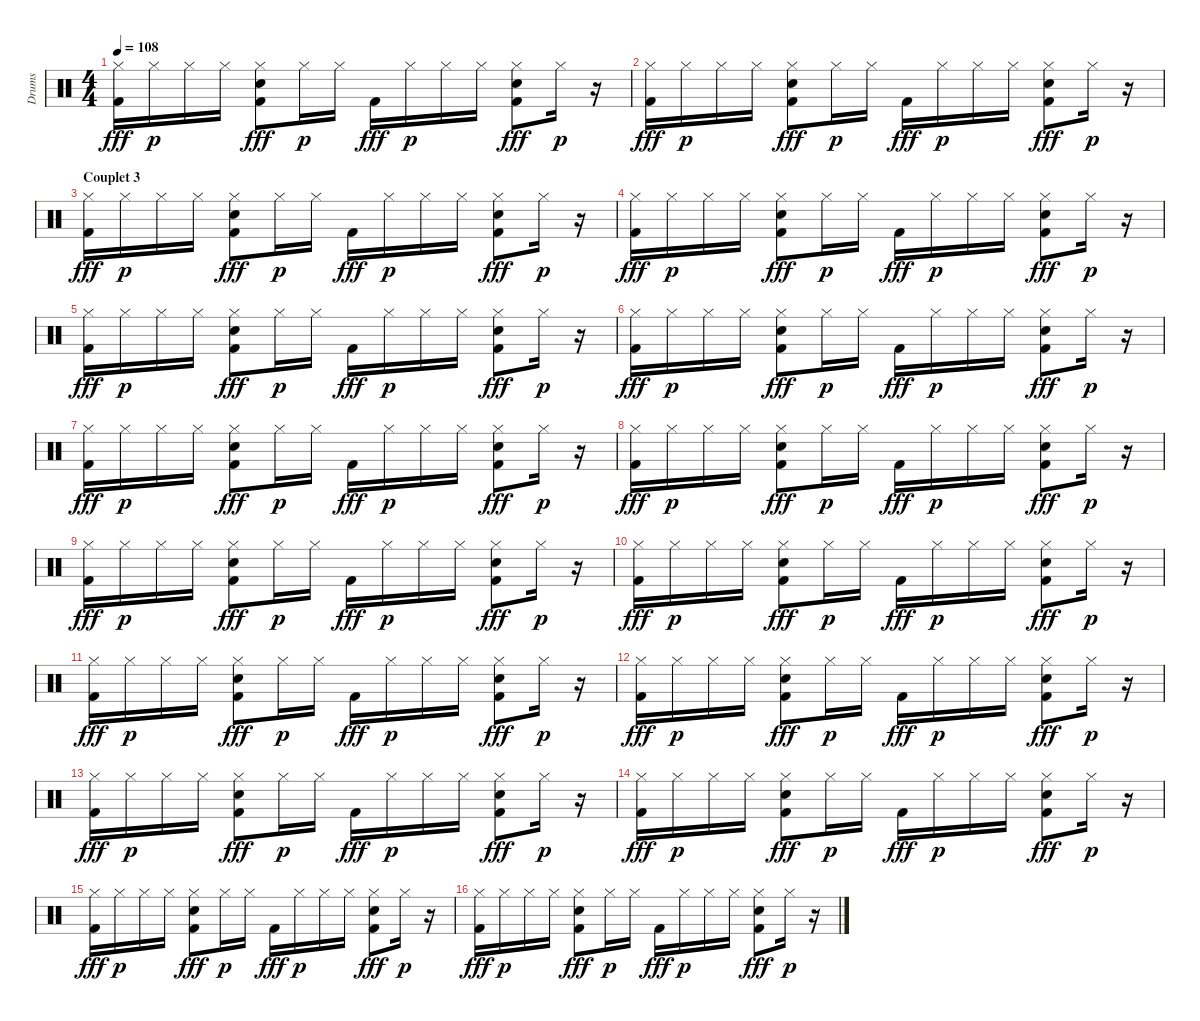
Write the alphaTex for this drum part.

\track ("Drums" "Drums") {instrument percussion}
\staff {score}
\articulation defaults
\ts (4 4)
\tempo 108
\clef neutral
\ks c
("Hi-Hat (closed)" "Kick (hit) 2").16{dy fff} "Hi-Hat (closed)".16{dy p} "Hi-Hat (closed)".16 "Hi-Hat (closed)".16 ("Hi-Hat (closed)" "Hand Clap (hit)" "Kick (hit) 2").8{dy fff} "Hi-Hat (closed)".16{dy p} "Hi-Hat (closed)".16 "Kick (hit) 2".16{dy fff} "Hi-Hat (closed)".16{dy p} "Hi-Hat (closed)".16 "Hi-Hat (closed)".16 ("Hi-Hat (closed)" "Hand Clap (hit)" "Kick (hit) 2").8{dy fff} "Hi-Hat (closed)".16{dy p} r.16 |
("Hi-Hat (closed)" "Kick (hit) 2").16{dy fff} "Hi-Hat (closed)".16{dy p} "Hi-Hat (closed)".16 "Hi-Hat (closed)".16 ("Hi-Hat (closed)" "Hand Clap (hit)" "Kick (hit) 2").8{dy fff} "Hi-Hat (closed)".16{dy p} "Hi-Hat (closed)".16 "Kick (hit) 2".16{dy fff} "Hi-Hat (closed)".16{dy p} "Hi-Hat (closed)".16 "Hi-Hat (closed)".16 ("Hi-Hat (closed)" "Hand Clap (hit)" "Kick (hit) 2").8{dy fff} "Hi-Hat (closed)".16{dy p} r.16 |
\section ("" "Couplet 3")
("Hi-Hat (closed)" "Kick (hit) 2").16{dy fff} "Hi-Hat (closed)".16{dy p} "Hi-Hat (closed)".16 "Hi-Hat (closed)".16 ("Hi-Hat (closed)" "Hand Clap (hit)" "Kick (hit) 2").8{dy fff} "Hi-Hat (closed)".16{dy p} "Hi-Hat (closed)".16 "Kick (hit) 2".16{dy fff} "Hi-Hat (closed)".16{dy p} "Hi-Hat (closed)".16 "Hi-Hat (closed)".16 ("Hi-Hat (closed)" "Hand Clap (hit)" "Kick (hit) 2").8{dy fff} "Hi-Hat (closed)".16{dy p} r.16 |
("Hi-Hat (closed)" "Kick (hit) 2").16{dy fff} "Hi-Hat (closed)".16{dy p} "Hi-Hat (closed)".16 "Hi-Hat (closed)".16 ("Hi-Hat (closed)" "Hand Clap (hit)" "Kick (hit) 2").8{dy fff} "Hi-Hat (closed)".16{dy p} "Hi-Hat (closed)".16 "Kick (hit) 2".16{dy fff} "Hi-Hat (closed)".16{dy p} "Hi-Hat (closed)".16 "Hi-Hat (closed)".16 ("Hi-Hat (closed)" "Hand Clap (hit)" "Kick (hit) 2").8{dy fff} "Hi-Hat (closed)".16{dy p} r.16 |
("Hi-Hat (closed)" "Kick (hit) 2").16{dy fff} "Hi-Hat (closed)".16{dy p} "Hi-Hat (closed)".16 "Hi-Hat (closed)".16 ("Hi-Hat (closed)" "Hand Clap (hit)" "Kick (hit) 2").8{dy fff} "Hi-Hat (closed)".16{dy p} "Hi-Hat (closed)".16 "Kick (hit) 2".16{dy fff} "Hi-Hat (closed)".16{dy p} "Hi-Hat (closed)".16 "Hi-Hat (closed)".16 ("Hi-Hat (closed)" "Hand Clap (hit)" "Kick (hit) 2").8{dy fff} "Hi-Hat (closed)".16{dy p} r.16 |
("Hi-Hat (closed)" "Kick (hit) 2").16{dy fff} "Hi-Hat (closed)".16{dy p} "Hi-Hat (closed)".16 "Hi-Hat (closed)".16 ("Hi-Hat (closed)" "Hand Clap (hit)" "Kick (hit) 2").8{dy fff} "Hi-Hat (closed)".16{dy p} "Hi-Hat (closed)".16 "Kick (hit) 2".16{dy fff} "Hi-Hat (closed)".16{dy p} "Hi-Hat (closed)".16 "Hi-Hat (closed)".16 ("Hi-Hat (closed)" "Hand Clap (hit)" "Kick (hit) 2").8{dy fff} "Hi-Hat (closed)".16{dy p} r.16 |
("Hi-Hat (closed)" "Kick (hit) 2").16{dy fff} "Hi-Hat (closed)".16{dy p} "Hi-Hat (closed)".16 "Hi-Hat (closed)".16 ("Hi-Hat (closed)" "Hand Clap (hit)" "Kick (hit) 2").8{dy fff} "Hi-Hat (closed)".16{dy p} "Hi-Hat (closed)".16 "Kick (hit) 2".16{dy fff} "Hi-Hat (closed)".16{dy p} "Hi-Hat (closed)".16 "Hi-Hat (closed)".16 ("Hi-Hat (closed)" "Hand Clap (hit)" "Kick (hit) 2").8{dy fff} "Hi-Hat (closed)".16{dy p} r.16 |
("Hi-Hat (closed)" "Kick (hit) 2").16{dy fff} "Hi-Hat (closed)".16{dy p} "Hi-Hat (closed)".16 "Hi-Hat (closed)".16 ("Hi-Hat (closed)" "Hand Clap (hit)" "Kick (hit) 2").8{dy fff} "Hi-Hat (closed)".16{dy p} "Hi-Hat (closed)".16 "Kick (hit) 2".16{dy fff} "Hi-Hat (closed)".16{dy p} "Hi-Hat (closed)".16 "Hi-Hat (closed)".16 ("Hi-Hat (closed)" "Hand Clap (hit)" "Kick (hit) 2").8{dy fff} "Hi-Hat (closed)".16{dy p} r.16 |
("Hi-Hat (closed)" "Kick (hit) 2").16{dy fff} "Hi-Hat (closed)".16{dy p} "Hi-Hat (closed)".16 "Hi-Hat (closed)".16 ("Hi-Hat (closed)" "Hand Clap (hit)" "Kick (hit) 2").8{dy fff} "Hi-Hat (closed)".16{dy p} "Hi-Hat (closed)".16 "Kick (hit) 2".16{dy fff} "Hi-Hat (closed)".16{dy p} "Hi-Hat (closed)".16 "Hi-Hat (closed)".16 ("Hi-Hat (closed)" "Hand Clap (hit)" "Kick (hit) 2").8{dy fff} "Hi-Hat (closed)".16{dy p} r.16 |
("Hi-Hat (closed)" "Kick (hit) 2").16{dy fff} "Hi-Hat (closed)".16{dy p} "Hi-Hat (closed)".16 "Hi-Hat (closed)".16 ("Hi-Hat (closed)" "Hand Clap (hit)" "Kick (hit) 2").8{dy fff} "Hi-Hat (closed)".16{dy p} "Hi-Hat (closed)".16 "Kick (hit) 2".16{dy fff} "Hi-Hat (closed)".16{dy p} "Hi-Hat (closed)".16 "Hi-Hat (closed)".16 ("Hi-Hat (closed)" "Hand Clap (hit)" "Kick (hit) 2").8{dy fff} "Hi-Hat (closed)".16{dy p} r.16 |
("Hi-Hat (closed)" "Kick (hit) 2").16{dy fff} "Hi-Hat (closed)".16{dy p} "Hi-Hat (closed)".16 "Hi-Hat (closed)".16 ("Hi-Hat (closed)" "Hand Clap (hit)" "Kick (hit) 2").8{dy fff} "Hi-Hat (closed)".16{dy p} "Hi-Hat (closed)".16 "Kick (hit) 2".16{dy fff} "Hi-Hat (closed)".16{dy p} "Hi-Hat (closed)".16 "Hi-Hat (closed)".16 ("Hi-Hat (closed)" "Hand Clap (hit)" "Kick (hit) 2").8{dy fff} "Hi-Hat (closed)".16{dy p} r.16 |
("Hi-Hat (closed)" "Kick (hit) 2").16{dy fff} "Hi-Hat (closed)".16{dy p} "Hi-Hat (closed)".16 "Hi-Hat (closed)".16 ("Hi-Hat (closed)" "Hand Clap (hit)" "Kick (hit) 2").8{dy fff} "Hi-Hat (closed)".16{dy p} "Hi-Hat (closed)".16 "Kick (hit) 2".16{dy fff} "Hi-Hat (closed)".16{dy p} "Hi-Hat (closed)".16 "Hi-Hat (closed)".16 ("Hi-Hat (closed)" "Hand Clap (hit)" "Kick (hit) 2").8{dy fff} "Hi-Hat (closed)".16{dy p} r.16 |
("Hi-Hat (closed)" "Kick (hit) 2").16{dy fff} "Hi-Hat (closed)".16{dy p} "Hi-Hat (closed)".16 "Hi-Hat (closed)".16 ("Hi-Hat (closed)" "Hand Clap (hit)" "Kick (hit) 2").8{dy fff} "Hi-Hat (closed)".16{dy p} "Hi-Hat (closed)".16 "Kick (hit) 2".16{dy fff} "Hi-Hat (closed)".16{dy p} "Hi-Hat (closed)".16 "Hi-Hat (closed)".16 ("Hi-Hat (closed)" "Hand Clap (hit)" "Kick (hit) 2").8{dy fff} "Hi-Hat (closed)".16{dy p} r.16 |
("Hi-Hat (closed)" "Kick (hit) 2").16{dy fff} "Hi-Hat (closed)".16{dy p} "Hi-Hat (closed)".16 "Hi-Hat (closed)".16 ("Hi-Hat (closed)" "Hand Clap (hit)" "Kick (hit) 2").8{dy fff} "Hi-Hat (closed)".16{dy p} "Hi-Hat (closed)".16 "Kick (hit) 2".16{dy fff} "Hi-Hat (closed)".16{dy p} "Hi-Hat (closed)".16 "Hi-Hat (closed)".16 ("Hi-Hat (closed)" "Hand Clap (hit)" "Kick (hit) 2").8{dy fff} "Hi-Hat (closed)".16{dy p} r.16 |
("Hi-Hat (closed)" "Kick (hit) 2").16{dy fff} "Hi-Hat (closed)".16{dy p} "Hi-Hat (closed)".16 "Hi-Hat (closed)".16 ("Hi-Hat (closed)" "Hand Clap (hit)" "Kick (hit) 2").8{dy fff} "Hi-Hat (closed)".16{dy p} "Hi-Hat (closed)".16 "Kick (hit) 2".16{dy fff} "Hi-Hat (closed)".16{dy p} "Hi-Hat (closed)".16 "Hi-Hat (closed)".16 ("Hi-Hat (closed)" "Hand Clap (hit)" "Kick (hit) 2").8{dy fff} "Hi-Hat (closed)".16{dy p} r.16 |
("Hi-Hat (closed)" "Kick (hit) 2").16{dy fff} "Hi-Hat (closed)".16{dy p} "Hi-Hat (closed)".16 "Hi-Hat (closed)".16 ("Hi-Hat (closed)" "Hand Clap (hit)" "Kick (hit) 2").8{dy fff} "Hi-Hat (closed)".16{dy p} "Hi-Hat (closed)".16 "Kick (hit) 2".16{dy fff} "Hi-Hat (closed)".16{dy p} "Hi-Hat (closed)".16 "Hi-Hat (closed)".16 ("Hi-Hat (closed)" "Hand Clap (hit)" "Kick (hit) 2").8{dy fff} "Hi-Hat (closed)".16{dy p} r.16
